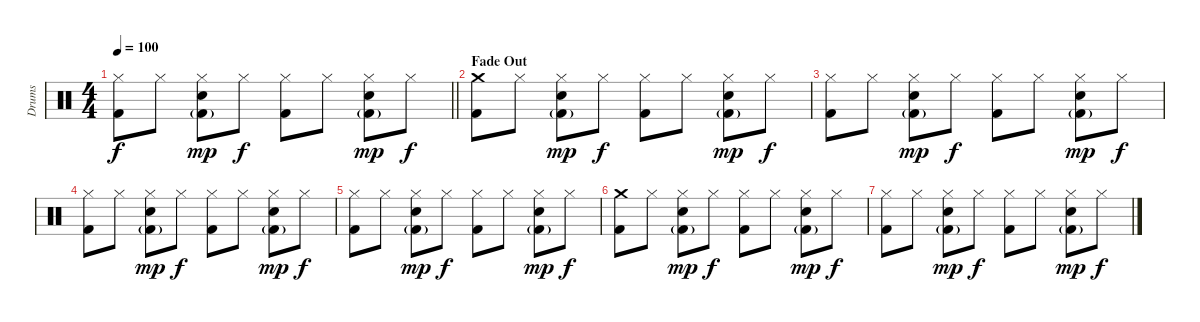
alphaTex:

\track ("Drums" "Drums") {instrument percussion}
\staff {score}
\articulation defaults
\ts (4 4)
\tempo 100
\clef neutral
\barLineRight lightlight
\ks c
("Hi-Hat (closed)" "Kick (hit) 2").8{dy f} "Hi-Hat (closed)".8 ("Hi-Hat (closed)" "Electric Snare (hit)" "Kick (hit) 2"{g}).8{dy mp} "Hi-Hat (closed)".8{dy f} ("Hi-Hat (closed)" "Kick (hit) 2").8 "Hi-Hat (closed)".8 ("Hi-Hat (closed)" "Electric Snare (hit)" "Kick (hit) 2"{g}).8{dy mp} "Hi-Hat (closed)".8{dy f} |
\section ("" "Fade Out")
("Crash medium (hit)" "Kick (hit) 2").8 "Hi-Hat (closed)".8 ("Hi-Hat (closed)" "Electric Snare (hit)" "Kick (hit) 2"{g}).8{dy mp} "Hi-Hat (closed)".8{dy f} ("Hi-Hat (closed)" "Kick (hit) 2").8 "Hi-Hat (closed)".8 ("Hi-Hat (closed)" "Electric Snare (hit)" "Kick (hit) 2"{g}).8{dy mp} "Hi-Hat (closed)".8{dy f} |
("Hi-Hat (closed)" "Kick (hit) 2").8 "Hi-Hat (closed)".8 ("Hi-Hat (closed)" "Electric Snare (hit)" "Kick (hit) 2"{g}).8{dy mp} "Hi-Hat (closed)".8{dy f} ("Hi-Hat (closed)" "Kick (hit) 2").8 "Hi-Hat (closed)".8 ("Hi-Hat (closed)" "Electric Snare (hit)" "Kick (hit) 2"{g}).8{dy mp} "Hi-Hat (closed)".8{dy f} |
("Hi-Hat (closed)" "Kick (hit) 2").8 "Hi-Hat (closed)".8 ("Hi-Hat (closed)" "Electric Snare (hit)" "Kick (hit) 2"{g}).8{dy mp} "Hi-Hat (closed)".8{dy f} ("Hi-Hat (closed)" "Kick (hit) 2").8 "Hi-Hat (closed)".8 ("Hi-Hat (closed)" "Electric Snare (hit)" "Kick (hit) 2"{g}).8{dy mp} "Hi-Hat (closed)".8{dy f} |
("Hi-Hat (closed)" "Kick (hit) 2").8 "Hi-Hat (closed)".8 ("Hi-Hat (closed)" "Electric Snare (hit)" "Kick (hit) 2"{g}).8{dy mp} "Hi-Hat (closed)".8{dy f} ("Hi-Hat (closed)" "Kick (hit) 2").8 "Hi-Hat (closed)".8 ("Hi-Hat (closed)" "Electric Snare (hit)" "Kick (hit) 2"{g}).8{dy mp} "Hi-Hat (closed)".8{dy f} |
("Crash medium (hit)" "Kick (hit) 2").8 "Hi-Hat (closed)".8 ("Hi-Hat (closed)" "Electric Snare (hit)" "Kick (hit) 2"{g}).8{dy mp} "Hi-Hat (closed)".8{dy f} ("Hi-Hat (closed)" "Kick (hit) 2").8 "Hi-Hat (closed)".8 ("Hi-Hat (closed)" "Electric Snare (hit)" "Kick (hit) 2"{g}).8{dy mp} "Hi-Hat (closed)".8{dy f} |
("Hi-Hat (closed)" "Kick (hit) 2").8 "Hi-Hat (closed)".8 ("Hi-Hat (closed)" "Electric Snare (hit)" "Kick (hit) 2"{g}).8{dy mp} "Hi-Hat (closed)".8{dy f} ("Hi-Hat (closed)" "Kick (hit) 2").8 "Hi-Hat (closed)".8 ("Hi-Hat (closed)" "Electric Snare (hit)" "Kick (hit) 2"{g}).8{dy mp} "Hi-Hat (closed)".8{dy f}
